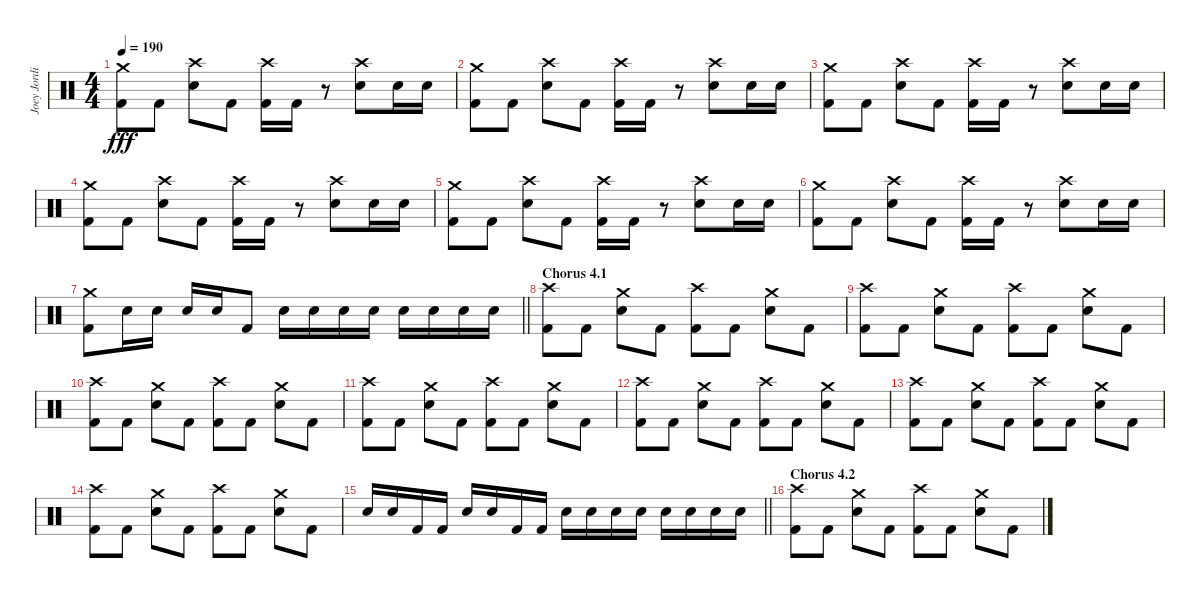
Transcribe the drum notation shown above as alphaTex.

\track ("Joey Jordison" "Joey Jordi") {instrument percussion}
\staff {score}
\articulation defaults
\ts (4 4)
\tempo 190
\clef neutral
\ks c
("Crash medium (hit)" "Kick (hit) 2").8{dy fff} "Kick (hit) 2".8 ("Crash high (hit)" "Electric Snare (hit)").8 "Kick (hit) 2".8 ("Crash high (hit)" "Kick (hit) 2").16 "Kick (hit) 2".16 r.8 ("Crash high (hit)" "Electric Snare (hit)").8 "Electric Snare (hit)".16 "Electric Snare (hit)".16 |
("Crash medium (hit)" "Kick (hit) 2").8 "Kick (hit) 2".8 ("Crash high (hit)" "Electric Snare (hit)").8 "Kick (hit) 2".8 ("Crash high (hit)" "Kick (hit) 2").16 "Kick (hit) 2".16 r.8 ("Crash high (hit)" "Electric Snare (hit)").8 "Electric Snare (hit)".16 "Electric Snare (hit)".16 |
("Crash medium (hit)" "Kick (hit) 2").8 "Kick (hit) 2".8 ("Crash high (hit)" "Electric Snare (hit)").8 "Kick (hit) 2".8 ("Crash high (hit)" "Kick (hit) 2").16 "Kick (hit) 2".16 r.8 ("Crash high (hit)" "Electric Snare (hit)").8 "Electric Snare (hit)".16 "Electric Snare (hit)".16 |
("Crash medium (hit)" "Kick (hit) 2").8 "Kick (hit) 2".8 ("Crash high (hit)" "Electric Snare (hit)").8 "Kick (hit) 2".8 ("Crash high (hit)" "Kick (hit) 2").16 "Kick (hit) 2".16 r.8 ("Crash high (hit)" "Electric Snare (hit)").8 "Electric Snare (hit)".16 "Electric Snare (hit)".16 |
("Crash medium (hit)" "Kick (hit) 2").8 "Kick (hit) 2".8 ("Crash high (hit)" "Electric Snare (hit)").8 "Kick (hit) 2".8 ("Crash high (hit)" "Kick (hit) 2").16 "Kick (hit) 2".16 r.8 ("Crash high (hit)" "Electric Snare (hit)").8 "Electric Snare (hit)".16 "Electric Snare (hit)".16 |
("Crash medium (hit)" "Kick (hit) 2").8 "Kick (hit) 2".8 ("Crash high (hit)" "Electric Snare (hit)").8 "Kick (hit) 2".8 ("Crash high (hit)" "Kick (hit) 2").16 "Kick (hit) 2".16 r.8 ("Crash high (hit)" "Electric Snare (hit)").8 "Electric Snare (hit)".16 "Electric Snare (hit)".16 |
\barLineRight lightlight
("Crash medium (hit)" "Kick (hit) 2").8 "Electric Snare (hit)".16 "Electric Snare (hit)".16 "Electric Snare (hit)".16 "Electric Snare (hit)".16 "Kick (hit) 2".8 "Electric Snare (hit)".16 "Electric Snare (hit)".16 "Electric Snare (hit)".16 "Electric Snare (hit)".16 "Electric Snare (hit)".16 "Electric Snare (hit)".16 "Electric Snare (hit)".16 "Electric Snare (hit)".16 |
\section ("" "Chorus 4.1")
("Crash high (hit)" "Kick (hit) 2").8 "Kick (hit) 2".8 ("Crash medium (hit)" "Electric Snare (hit)").8 "Kick (hit) 2".8 ("Crash high (hit)" "Kick (hit) 2").8 "Kick (hit) 2".8 ("Crash medium (hit)" "Electric Snare (hit)").8 "Kick (hit) 2".8 |
("Crash high (hit)" "Kick (hit) 2").8 "Kick (hit) 2".8 ("Crash medium (hit)" "Electric Snare (hit)").8 "Kick (hit) 2".8 ("Crash high (hit)" "Kick (hit) 2").8 "Kick (hit) 2".8 ("Crash medium (hit)" "Electric Snare (hit)").8 "Kick (hit) 2".8 |
("Crash high (hit)" "Kick (hit) 2").8 "Kick (hit) 2".8 ("Crash medium (hit)" "Electric Snare (hit)").8 "Kick (hit) 2".8 ("Crash high (hit)" "Kick (hit) 2").8 "Kick (hit) 2".8 ("Crash medium (hit)" "Electric Snare (hit)").8 "Kick (hit) 2".8 |
("Crash high (hit)" "Kick (hit) 2").8 "Kick (hit) 2".8 ("Crash medium (hit)" "Electric Snare (hit)").8 "Kick (hit) 2".8 ("Crash high (hit)" "Kick (hit) 2").8 "Kick (hit) 2".8 ("Crash medium (hit)" "Electric Snare (hit)").8 "Kick (hit) 2".8 |
("Crash high (hit)" "Kick (hit) 2").8 "Kick (hit) 2".8 ("Crash medium (hit)" "Electric Snare (hit)").8 "Kick (hit) 2".8 ("Crash high (hit)" "Kick (hit) 2").8 "Kick (hit) 2".8 ("Crash medium (hit)" "Electric Snare (hit)").8 "Kick (hit) 2".8 |
("Crash high (hit)" "Kick (hit) 2").8 "Kick (hit) 2".8 ("Crash medium (hit)" "Electric Snare (hit)").8 "Kick (hit) 2".8 ("Crash high (hit)" "Kick (hit) 2").8 "Kick (hit) 2".8 ("Crash medium (hit)" "Electric Snare (hit)").8 "Kick (hit) 2".8 |
("Crash high (hit)" "Kick (hit) 2").8 "Kick (hit) 2".8 ("Crash medium (hit)" "Electric Snare (hit)").8 "Kick (hit) 2".8 ("Crash high (hit)" "Kick (hit) 2").8 "Kick (hit) 2".8 ("Crash medium (hit)" "Electric Snare (hit)").8 "Kick (hit) 2".8 |
\barLineRight lightlight "Electric Snare (hit)".16 "Electric Snare (hit)".16 "Kick (hit) 2".16 "Kick (hit) 2".16 "Electric Snare (hit)".16 "Electric Snare (hit)".16 "Kick (hit) 2".16 "Kick (hit) 2".16 "Electric Snare (hit)".16 "Electric Snare (hit)".16 "Electric Snare (hit)".16 "Electric Snare (hit)".16 "Electric Snare (hit)".16 "Electric Snare (hit)".16 "Electric Snare (hit)".16 "Electric Snare (hit)".16
|
\section ("" "Chorus 4.2")
("Crash high (hit)" "Kick (hit) 2").8 "Kick (hit) 2".8 ("Crash medium (hit)" "Electric Snare (hit)").8 "Kick (hit) 2".8 ("Crash high (hit)" "Kick (hit) 2").8 "Kick (hit) 2".8 ("Crash medium (hit)" "Electric Snare (hit)").8 "Kick (hit) 2".8
